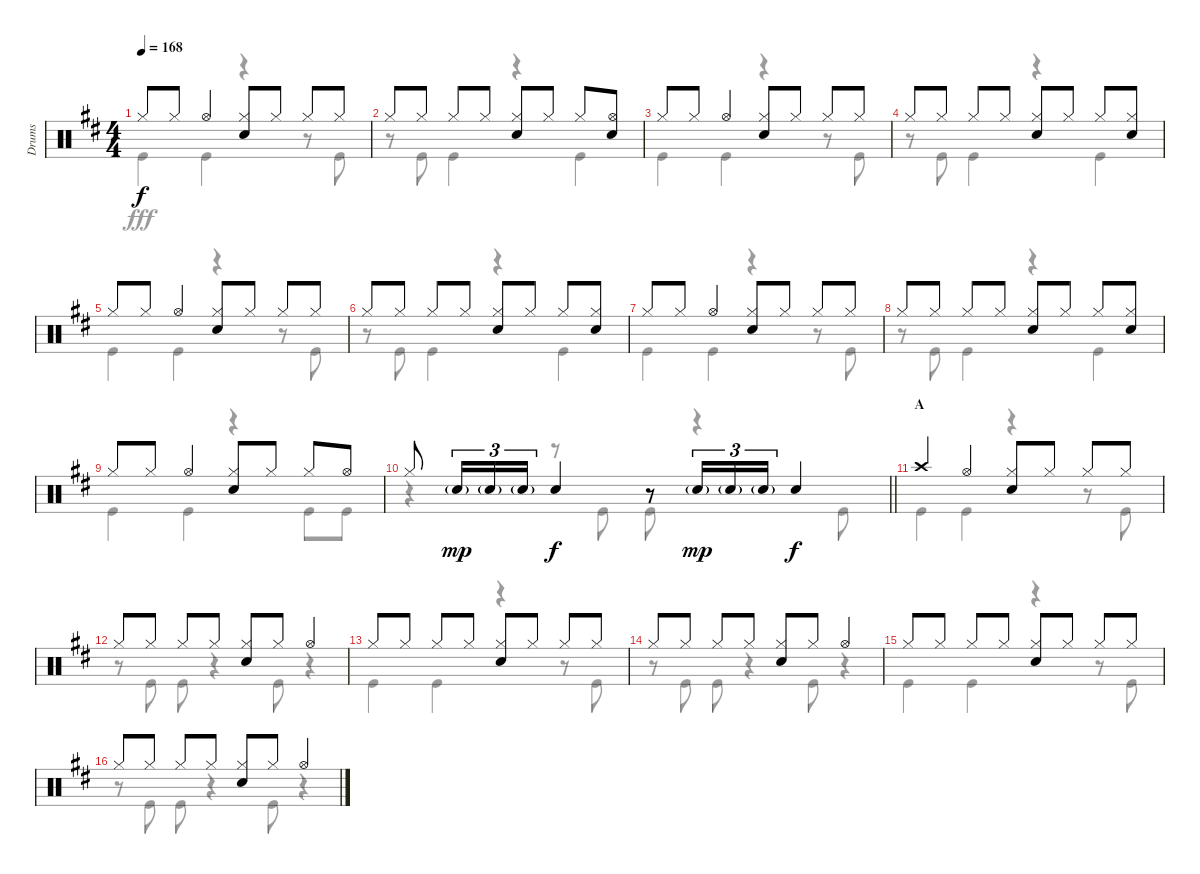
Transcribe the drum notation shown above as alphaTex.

\track ("Drums" "Drums") {instrument percussion}
\staff {score}
\articulation defaults
\voice
\ts (4 4)
\tempo 168
\clef neutral
\ks d "Hi-Hat (closed)".8{dy f} "Hi-Hat (closed)".8 "Hi-Hat (open)".4
("Hi-Hat (closed)" "Snare (hit) 2").8 "Hi-Hat (closed)".8 "Hi-Hat (closed)".8 "Hi-Hat (closed)".8 |
"Hi-Hat (closed)".8 "Hi-Hat (closed)".8 "Hi-Hat (closed)".8 "Hi-Hat (closed)".8 ("Hi-Hat (closed)" "Snare (hit) 2").8 "Hi-Hat (closed)".8 "Hi-Hat (closed)".8 ("Hi-Hat (open)" "Snare (hit) 2").8 |
"Hi-Hat (closed)".8 "Hi-Hat (closed)".8 "Hi-Hat (open)".4 ("Hi-Hat (closed)" "Snare (hit) 2").8 "Hi-Hat (closed)".8 "Hi-Hat (closed)".8 "Hi-Hat (closed)".8 |
"Hi-Hat (closed)".8 "Hi-Hat (closed)".8 "Hi-Hat (closed)".8 "Hi-Hat (closed)".8 ("Hi-Hat (closed)" "Snare (hit) 2").8 "Hi-Hat (closed)".8 "Hi-Hat (closed)".8 ("Hi-Hat (closed)" "Snare (hit) 2").8 |
"Hi-Hat (closed)".8 "Hi-Hat (closed)".8 "Hi-Hat (open)".4 ("Hi-Hat (closed)" "Snare (hit) 2").8 "Hi-Hat (closed)".8 "Hi-Hat (closed)".8 "Hi-Hat (closed)".8 |
"Hi-Hat (closed)".8 "Hi-Hat (closed)".8 "Hi-Hat (closed)".8 "Hi-Hat (closed)".8 ("Hi-Hat (closed)" "Snare (hit) 2").8 "Hi-Hat (closed)".8 "Hi-Hat (closed)".8 ("Hi-Hat (closed)" "Snare (hit) 2").8 |
"Hi-Hat (closed)".8 "Hi-Hat (closed)".8 "Hi-Hat (open)".4 ("Hi-Hat (closed)" "Snare (hit) 2").8 "Hi-Hat (closed)".8 "Hi-Hat (closed)".8 "Hi-Hat (closed)".8 |
"Hi-Hat (closed)".8 "Hi-Hat (closed)".8 "Hi-Hat (closed)".8 "Hi-Hat (closed)".8 ("Hi-Hat (closed)" "Snare (hit) 2").8 "Hi-Hat (closed)".8 "Hi-Hat (closed)".8 ("Hi-Hat (closed)" "Snare (hit) 2").8 |
"Hi-Hat (closed)".8 "Hi-Hat (closed)".8 "Hi-Hat (open)".4 ("Hi-Hat (closed)" "Snare (hit) 2").8 "Hi-Hat (closed)".8 "Hi-Hat (closed)".8 "Hi-Hat (open)".8 |
\barLineRight lightlight "Hi-Hat (closed)".8 "Snare (hit) 2"{g}.16{tu (3 2) dy mp} "Snare (hit) 2"{g}.16{tu (3 2)} "Snare (hit) 2"{g}.16{tu (3 2)} "Snare (hit) 2".4{dy f}
r.8 "Snare (hit) 2"{g}.16{tu (3 2) dy mp} "Snare (hit) 2"{g}.16{tu (3 2)} "Snare (hit) 2"{g}.16{tu (3 2)} "Snare (hit) 2".4{dy f} |
\section ("" "A")
"Crash high (hit)".4 "Hi-Hat (open)".4 ("Hi-Hat (closed)" "Snare (hit) 2").8 "Hi-Hat (closed)".8 "Hi-Hat (closed)".8 "Hi-Hat (closed)".8 |
"Hi-Hat (closed)".8 "Hi-Hat (closed)".8 "Hi-Hat (closed)".8 "Hi-Hat (closed)".8 ("Hi-Hat (closed)" "Snare (hit) 2").8 "Hi-Hat (closed)".8 "Hi-Hat (open)".4 |
"Hi-Hat (closed)".8 "Hi-Hat (closed)".8 "Hi-Hat (closed)".8 "Hi-Hat (closed)".8 ("Hi-Hat (closed)" "Snare (hit) 2").8 "Hi-Hat (closed)".8 "Hi-Hat (closed)".8 "Hi-Hat (closed)".8 |
"Hi-Hat (closed)".8 "Hi-Hat (closed)".8 "Hi-Hat (closed)".8 "Hi-Hat (closed)".8 ("Hi-Hat (closed)" "Snare (hit) 2").8 "Hi-Hat (closed)".8 "Hi-Hat (open)".4 |
"Hi-Hat (closed)".8 "Hi-Hat (closed)".8 "Hi-Hat (closed)".8 "Hi-Hat (closed)".8 ("Hi-Hat (closed)" "Snare (hit) 2").8 "Hi-Hat (closed)".8 "Hi-Hat (closed)".8 "Hi-Hat (closed)".8 |
"Hi-Hat (closed)".8 "Hi-Hat (closed)".8 "Hi-Hat (closed)".8 "Hi-Hat (closed)".8 ("Hi-Hat (closed)" "Snare (hit) 2").8 "Hi-Hat (closed)".8 "Hi-Hat (open)".4
\voice
\clef neutral
\ottava regular
\simile none
\ks d "Kick (hit)".4{dy fff} "Kick (hit)".4
r.4 r.8 "Kick (hit)".8 |
r.8 "Kick (hit)".8 "Kick (hit)".4 r.4 "Kick (hit)".4 |
"Kick (hit)".4 "Kick (hit)".4 r.4 r.8 "Kick (hit)".8 |
r.8 "Kick (hit)".8 "Kick (hit)".4 r.4 "Kick (hit)".4 |
"Kick (hit)".4 "Kick (hit)".4 r.4 r.8 "Kick (hit)".8 |
r.8 "Kick (hit)".8 "Kick (hit)".4 r.4 "Kick (hit)".4 |
"Kick (hit)".4 "Kick (hit)".4 r.4 r.8 "Kick (hit)".8 |
r.8 "Kick (hit)".8 "Kick (hit)".4 r.4 "Kick (hit)".4 |
"Kick (hit)".4 "Kick (hit)".4 r.4 "Kick (hit)".8 "Kick (hit)".8 |
\barLineRight lightlight
r.4 r.8 "Kick (hit)".8 "Kick (hit)".8 r.4 "Kick (hit)".8 |
"Kick (hit)".4 "Kick (hit)".4 r.4 r.8 "Kick (hit)".8 |
r.8 "Kick (hit)".8 "Kick (hit)".8 r.4 "Kick (hit)".8 r.4 |
"Kick (hit)".4 "Kick (hit)".4 r.4 r.8 "Kick (hit)".8 |
r.8 "Kick (hit)".8 "Kick (hit)".8 r.4 "Kick (hit)".8 r.4 |
"Kick (hit)".4 "Kick (hit)".4 r.4 r.8 "Kick (hit)".8 |
r.8 "Kick (hit)".8 "Kick (hit)".8 r.4 "Kick (hit)".8 r.4
